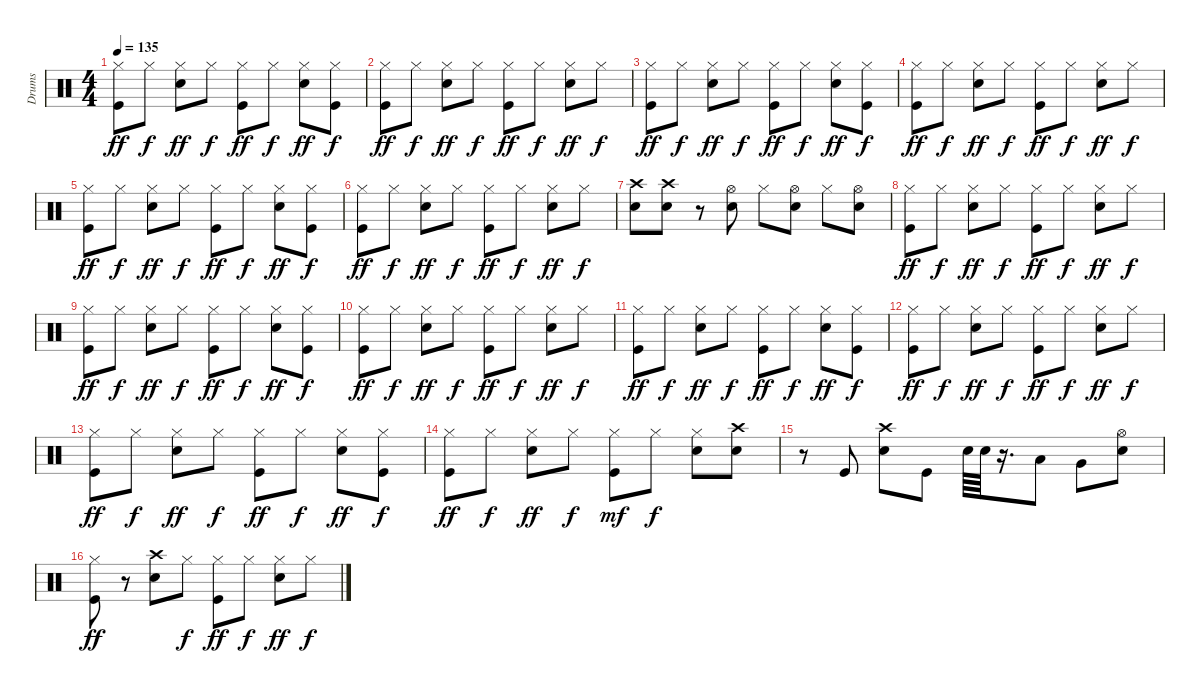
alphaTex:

\track ("Drums" "Drums") {instrument percussion}
\staff {score}
\articulation defaults
\ts (4 4)
\tempo 135
\clef neutral
\ks c
("Hi-Hat (closed)" "Kick (hit)").8{dy ff} "Hi-Hat (closed)".8{dy f} ("Hi-Hat (closed)" "Snare (hit) 2").8{dy ff} "Hi-Hat (closed)".8{dy f} ("Hi-Hat (closed)" "Kick (hit)").8{dy ff} "Hi-Hat (closed)".8{dy f} ("Hi-Hat (closed)" "Snare (hit) 2").8{dy ff} ("Hi-Hat (closed)" "Kick (hit)").8{dy f} |
("Hi-Hat (closed)" "Kick (hit)").8{dy ff} "Hi-Hat (closed)".8{dy f} ("Hi-Hat (closed)" "Snare (hit) 2").8{dy ff} "Hi-Hat (closed)".8{dy f} ("Hi-Hat (closed)" "Kick (hit)").8{dy ff} "Hi-Hat (closed)".8{dy f} ("Hi-Hat (closed)" "Snare (hit) 2").8{dy ff} "Hi-Hat (closed)".8{dy f} |
("Hi-Hat (closed)" "Kick (hit)").8{dy ff} "Hi-Hat (closed)".8{dy f} ("Hi-Hat (closed)" "Snare (hit) 2").8{dy ff} "Hi-Hat (closed)".8{dy f} ("Hi-Hat (closed)" "Kick (hit)").8{dy ff} "Hi-Hat (closed)".8{dy f} ("Hi-Hat (closed)" "Snare (hit) 2").8{dy ff} ("Hi-Hat (closed)" "Kick (hit)").8{dy f} |
("Hi-Hat (closed)" "Kick (hit)").8{dy ff} "Hi-Hat (closed)".8{dy f} ("Hi-Hat (closed)" "Snare (hit) 2").8{dy ff} "Hi-Hat (closed)".8{dy f} ("Hi-Hat (closed)" "Kick (hit)").8{dy ff} "Hi-Hat (closed)".8{dy f} ("Hi-Hat (closed)" "Snare (hit) 2").8{dy ff} "Hi-Hat (closed)".8{dy f} |
("Hi-Hat (closed)" "Kick (hit)").8{dy ff} "Hi-Hat (closed)".8{dy f} ("Hi-Hat (closed)" "Snare (hit) 2").8{dy ff} "Hi-Hat (closed)".8{dy f} ("Hi-Hat (closed)" "Kick (hit)").8{dy ff} "Hi-Hat (closed)".8{dy f} ("Hi-Hat (closed)" "Snare (hit) 2").8{dy ff} ("Hi-Hat (closed)" "Kick (hit)").8{dy f} |
("Hi-Hat (closed)" "Kick (hit)").8{dy ff} "Hi-Hat (closed)".8{dy f} ("Hi-Hat (closed)" "Snare (hit) 2").8{dy ff} "Hi-Hat (closed)".8{dy f} ("Hi-Hat (closed)" "Kick (hit)").8{dy ff} "Hi-Hat (closed)".8{dy f} ("Hi-Hat (closed)" "Snare (hit) 2").8{dy ff} "Hi-Hat (closed)".8{dy f} |
("Crash high (hit)" "Snare (hit) 2").8 ("Crash high (hit)" "Snare (hit) 2").8 r.8 ("Hi-Hat (open)" "Snare (hit) 2").8 "Hi-Hat (closed)".8 ("Hi-Hat (open)" "Snare (hit) 2").8 "Hi-Hat (closed)".8 ("Hi-Hat (open)" "Snare (hit) 2").8 |
("Hi-Hat (closed)" "Kick (hit)").8{dy ff} "Hi-Hat (closed)".8{dy f} ("Hi-Hat (closed)" "Snare (hit) 2").8{dy ff} "Hi-Hat (closed)".8{dy f} ("Hi-Hat (closed)" "Kick (hit)").8{dy ff} "Hi-Hat (closed)".8{dy f} ("Hi-Hat (closed)" "Snare (hit) 2").8{dy ff} "Hi-Hat (closed)".8{dy f} |
("Hi-Hat (closed)" "Kick (hit)").8{dy ff} "Hi-Hat (closed)".8{dy f} ("Hi-Hat (closed)" "Snare (hit) 2").8{dy ff} "Hi-Hat (closed)".8{dy f} ("Hi-Hat (closed)" "Kick (hit)").8{dy ff} "Hi-Hat (closed)".8{dy f} ("Hi-Hat (closed)" "Snare (hit) 2").8{dy ff} ("Hi-Hat (closed)" "Kick (hit)").8{dy f} |
("Hi-Hat (closed)" "Kick (hit)").8{dy ff} "Hi-Hat (closed)".8{dy f} ("Hi-Hat (closed)" "Snare (hit) 2").8{dy ff} "Hi-Hat (closed)".8{dy f} ("Hi-Hat (closed)" "Kick (hit)").8{dy ff} "Hi-Hat (closed)".8{dy f} ("Hi-Hat (closed)" "Snare (hit) 2").8{dy ff} "Hi-Hat (closed)".8{dy f} |
("Hi-Hat (closed)" "Kick (hit)").8{dy ff} "Hi-Hat (closed)".8{dy f} ("Hi-Hat (closed)" "Snare (hit) 2").8{dy ff} "Hi-Hat (closed)".8{dy f} ("Hi-Hat (closed)" "Kick (hit)").8{dy ff} "Hi-Hat (closed)".8{dy f} ("Hi-Hat (closed)" "Snare (hit) 2").8{dy ff} ("Hi-Hat (closed)" "Kick (hit)").8{dy f} |
("Hi-Hat (closed)" "Kick (hit)").8{dy ff} "Hi-Hat (closed)".8{dy f} ("Hi-Hat (closed)" "Snare (hit) 2").8{dy ff} "Hi-Hat (closed)".8{dy f} ("Hi-Hat (closed)" "Kick (hit)").8{dy ff} "Hi-Hat (closed)".8{dy f} ("Hi-Hat (closed)" "Snare (hit) 2").8{dy ff} "Hi-Hat (closed)".8{dy f} |
("Hi-Hat (closed)" "Kick (hit)").8{dy ff} "Hi-Hat (closed)".8{dy f} ("Hi-Hat (closed)" "Snare (hit) 2").8{dy ff} "Hi-Hat (closed)".8{dy f} ("Hi-Hat (closed)" "Kick (hit)").8{dy ff} "Hi-Hat (closed)".8{dy f} ("Hi-Hat (closed)" "Snare (hit) 2").8{dy ff} ("Hi-Hat (closed)" "Kick (hit)").8{dy f} |
("Hi-Hat (closed)" "Kick (hit)").8{dy ff} "Hi-Hat (closed)".8{dy f} ("Hi-Hat (closed)" "Snare (hit) 2").8{dy ff} "Hi-Hat (closed)".8{dy f} ("Hi-Hat (closed)" "Kick (hit)").8{dy mf} "Hi-Hat (closed)".8{dy f} ("Hi-Hat (closed)" "Snare (hit) 2").8 ("Crash high (hit)" "Snare (hit) 2").8 |
r.8 "Kick (hit)".8 ("Crash high (hit)" "Snare (hit) 2").8 "Kick (hit)".8 "Snare (hit) 2".64 "Snare (hit) 2".64 r.16{d} "Low Tom (hit)".8 "Very Low Tom (hit)".8 ("Hi-Hat (open)" "Snare (hit) 2").8 |
("Hi-Hat (closed)" "Kick (hit)").8{dy ff} r.8 ("Crash high (hit)" "Snare (hit) 2").8 "Hi-Hat (closed)".8{dy f} ("Hi-Hat (closed)" "Kick (hit)").8{dy ff} "Hi-Hat (closed)".8{dy f} ("Hi-Hat (closed)" "Snare (hit) 2").8{dy ff} "Hi-Hat (closed)".8{dy f}
